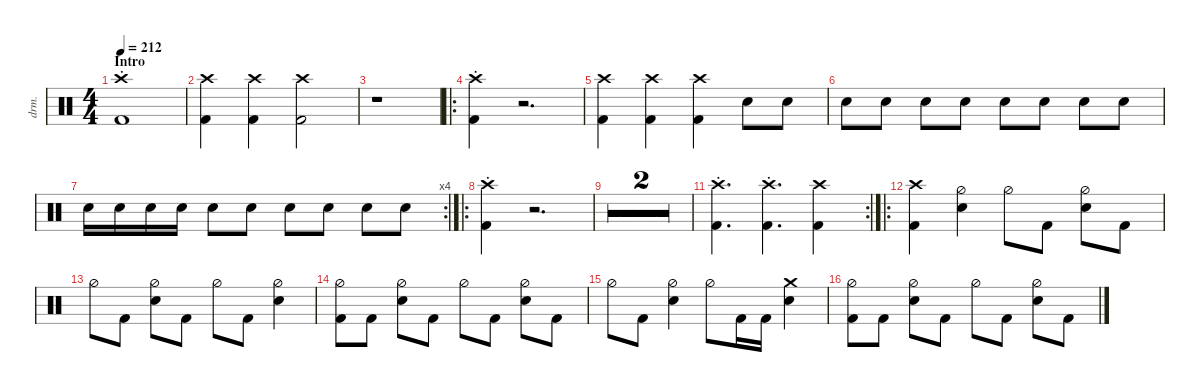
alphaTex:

\defaultSystemsLayout 4
\hideDynamics
\bracketExtendMode nobrackets
\track ("Drums" "drm.") {defaultSystemsLayout 4 multiBarRest instrument percussion}
\staff
\articulation defaults
\ts (4 4)
\section ("" "Intro")
\tempo 212
\clef neutral
\ks c
("Kick (hit) 2" "Crash high (hit)"{st}).1{dy f} |
("Crash high (hit)" "Kick (hit) 2").4 ("Crash high (hit)" "Kick (hit) 2").4 ("Crash high (hit)" "Kick (hit) 2").2{dy ff} |
r.1 |
\ro
("Crash high (hit)"{st} "Kick (hit) 2").4{dy f} r.2{d} |
("Crash high (hit)" "Kick (hit) 2").4 ("Crash high (hit)" "Kick (hit) 2").4 ("Crash high (hit)" "Kick (hit) 2").4 "Snare (hit) 2".8{dy p} "Snare (hit) 2".8 |
"Snare (hit) 2".8 "Snare (hit) 2".8 "Snare (hit) 2".8{dy mp} "Snare (hit) 2".8 "Snare (hit) 2".8 "Snare (hit) 2".8 "Snare (hit) 2".8 "Snare (hit) 2".8 |
\rc 4 "Snare (hit) 2".16{dy mf} "Snare (hit) 2".16{dy mp} "Snare (hit) 2".16 "Snare (hit) 2".16 "Snare (hit) 2".8{dy mf} "Snare (hit) 2".8 "Snare (hit) 2".8 "Snare (hit) 2".8 "Snare (hit) 2".8{dy f} "Snare (hit) 2".8
|
\ro
("Crash high (hit)"{st} "Kick (hit) 2").4 r.2{d} |
r.1 |
r.1 |
\rc 2
("Crash high (hit)"{st} "Kick (hit) 2").4{d} ("Crash high (hit)"{st} "Kick (hit) 2").4{d} ("Crash high (hit)" "Kick (hit) 2").4 |
\ro
("Crash high (hit)" "Kick (hit) 2").4 ("Hi-Hat (half)" "Snare (hit) 2").4 "Hi-Hat (half)".8 "Kick (hit) 2".8 ("Hi-Hat (half)" "Snare (hit) 2").8 "Kick (hit) 2".8 |
"Hi-Hat (half)".8 "Kick (hit) 2".8 ("Hi-Hat (half)" "Snare (hit) 2").8 "Kick (hit) 2".8 "Hi-Hat (half)".8 "Kick (hit) 2".8 ("Hi-Hat (half)" "Snare (hit) 2").4 |
("Hi-Hat (half)" "Kick (hit) 2").8 "Kick (hit) 2".8 ("Hi-Hat (half)" "Snare (hit) 2").8 "Kick (hit) 2".8 "Hi-Hat (half)".8 "Kick (hit) 2".8 ("Hi-Hat (half)" "Snare (hit) 2").8 "Kick (hit) 2".8 |
"Hi-Hat (half)".8 "Kick (hit) 2".8 ("Hi-Hat (half)" "Snare (hit) 2").4 "Hi-Hat (half)".8 "Kick (hit) 2".16 "Kick (hit) 2".16 ("Snare (hit) 2" "Crash medium (hit)").4 |
("Hi-Hat (half)" "Kick (hit) 2").8 "Kick (hit) 2".8 ("Hi-Hat (half)" "Snare (hit) 2").8 "Kick (hit) 2".8 "Hi-Hat (half)".8 "Kick (hit) 2".8 ("Hi-Hat (half)" "Snare (hit) 2").8 "Kick (hit) 2".8
